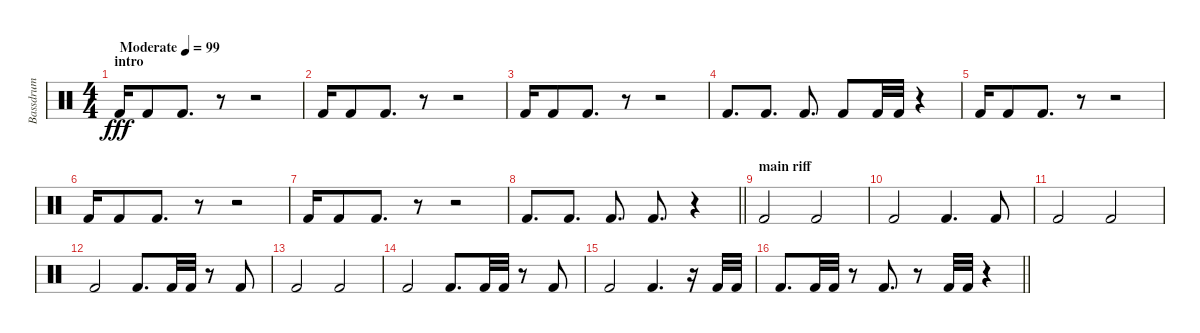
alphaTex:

\track ("Bassdrum" "Bassdrum") {instrument percussion}
\staff {score}
\articulation defaults
\ts (4 4)
\section ("" "intro")
\tempo (99 "Moderate")
\clef neutral
\ks c "Kick (hit) 2".16{dy fff volume 16} "Kick (hit) 2".8 "Kick (hit) 2".8{d}
r.8 r.2 |
"Kick (hit) 2".16 "Kick (hit) 2".8 "Kick (hit) 2".8{d} r.8 r.2 |
"Kick (hit) 2".16 "Kick (hit) 2".8 "Kick (hit) 2".8{d} r.8 r.2 |
"Kick (hit) 2".8{d} "Kick (hit) 2".8{d} "Kick (hit) 2".8{d} "Kick (hit) 2".8 "Kick (hit) 2".32 "Kick (hit) 2".32 r.4 |
"Kick (hit) 2".16 "Kick (hit) 2".8 "Kick (hit) 2".8{d} r.8 r.2 |
"Kick (hit) 2".16 "Kick (hit) 2".8 "Kick (hit) 2".8{d} r.8 r.2 |
"Kick (hit) 2".16 "Kick (hit) 2".8 "Kick (hit) 2".8{d} r.8 r.2 |
\barLineRight lightlight "Kick (hit) 2".8{d} "Kick (hit) 2".8{d} "Kick (hit) 2".8{d} "Kick (hit) 2".8{d}
r.4 |
\section ("" "main riff")
"Kick (hit) 2".2 "Kick (hit) 2".2 |
"Kick (hit) 2".2 "Kick (hit) 2".4{d} "Kick (hit) 2".8 |
"Kick (hit) 2".2 "Kick (hit) 2".2 |
"Kick (hit) 2".2 "Kick (hit) 2".8{d} "Kick (hit) 2".32 "Kick (hit) 2".32 r.8 "Kick (hit) 2".8 |
"Kick (hit) 2".2 "Kick (hit) 2".2 |
"Kick (hit) 2".2 "Kick (hit) 2".8{d} "Kick (hit) 2".32 "Kick (hit) 2".32 r.8 "Kick (hit) 2".8 |
"Kick (hit) 2".2 "Kick (hit) 2".4{d} r.16 "Kick (hit) 2".32 "Kick (hit) 2".32 |
\barLineRight lightlight "Kick (hit) 2".8{d} "Kick (hit) 2".32 "Kick (hit) 2".32
r.8 "Kick (hit) 2".8{d} r.8 "Kick (hit) 2".32 "Kick (hit) 2".32 r.4
